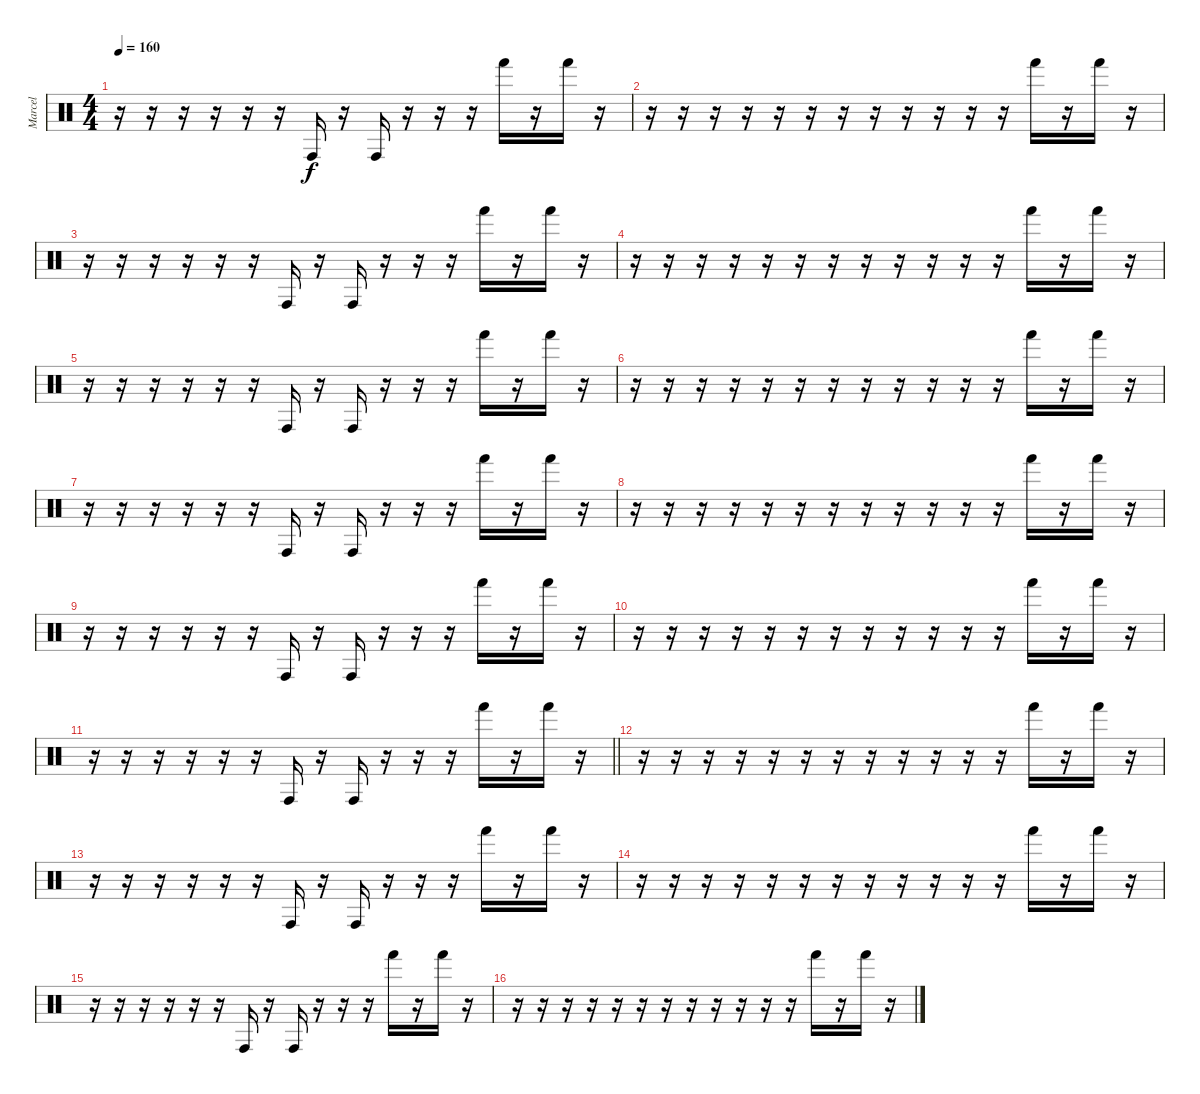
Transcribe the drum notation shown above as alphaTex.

\track ("Marcel" "Marcel") {instrument percussion}
\staff {score}
\articulation defaults
\ts (4 4)
\tempo 160
\clef neutral
\ks c
r.16{dy f} r.16 r.16 r.16 r.16 r.16 "Conga high (hit)".16 r.16 "Conga high (hit)".16 r.16 r.16 r.16 "Hand (hit)".16 r.16 "Hand (hit)".16 r.16 |
r.16 r.16 r.16 r.16 r.16 r.16 r.16 r.16 r.16 r.16 r.16 r.16 "Hand (hit)".16 r.16 "Hand (hit)".16 r.16 |
r.16 r.16 r.16 r.16 r.16 r.16 "Conga high (hit)".16 r.16 "Conga high (hit)".16 r.16 r.16 r.16 "Hand (hit)".16 r.16 "Hand (hit)".16 r.16 |
r.16 r.16 r.16 r.16 r.16 r.16 r.16 r.16 r.16 r.16 r.16 r.16 "Hand (hit)".16 r.16 "Hand (hit)".16 r.16 |
r.16 r.16 r.16 r.16 r.16 r.16 "Conga high (hit)".16 r.16 "Conga high (hit)".16 r.16 r.16 r.16 "Hand (hit)".16 r.16 "Hand (hit)".16 r.16 |
r.16 r.16 r.16 r.16 r.16 r.16 r.16 r.16 r.16 r.16 r.16 r.16 "Hand (hit)".16 r.16 "Hand (hit)".16 r.16 |
r.16 r.16 r.16 r.16 r.16 r.16 "Conga high (hit)".16 r.16 "Conga high (hit)".16 r.16 r.16 r.16 "Hand (hit)".16 r.16 "Hand (hit)".16 r.16 |
r.16 r.16 r.16 r.16 r.16 r.16 r.16 r.16 r.16 r.16 r.16 r.16 "Hand (hit)".16 r.16 "Hand (hit)".16 r.16 |
r.16 r.16 r.16 r.16 r.16 r.16 "Conga high (hit)".16 r.16 "Conga high (hit)".16 r.16 r.16 r.16 "Hand (hit)".16 r.16 "Hand (hit)".16 r.16 |
r.16 r.16 r.16 r.16 r.16 r.16 r.16 r.16 r.16 r.16 r.16 r.16 "Hand (hit)".16 r.16 "Hand (hit)".16 r.16 |
\barLineRight lightlight
r.16 r.16 r.16 r.16 r.16 r.16 "Conga high (hit)".16 r.16 "Conga high (hit)".16 r.16 r.16 r.16 "Hand (hit)".16 r.16 "Hand (hit)".16 r.16 |
r.16 r.16 r.16 r.16 r.16 r.16 r.16 r.16 r.16 r.16 r.16 r.16 "Hand (hit)".16 r.16 "Hand (hit)".16 r.16 |
r.16 r.16 r.16 r.16 r.16 r.16 "Conga high (hit)".16 r.16 "Conga high (hit)".16 r.16 r.16 r.16 "Hand (hit)".16 r.16 "Hand (hit)".16 r.16 |
r.16 r.16 r.16 r.16 r.16 r.16 r.16 r.16 r.16 r.16 r.16 r.16 "Hand (hit)".16 r.16 "Hand (hit)".16 r.16 |
r.16 r.16 r.16 r.16 r.16 r.16 "Conga high (hit)".16 r.16 "Conga high (hit)".16 r.16 r.16 r.16 "Hand (hit)".16 r.16 "Hand (hit)".16 r.16 |
r.16 r.16 r.16 r.16 r.16 r.16 r.16 r.16 r.16 r.16 r.16 r.16 "Hand (hit)".16 r.16 "Hand (hit)".16 r.16
